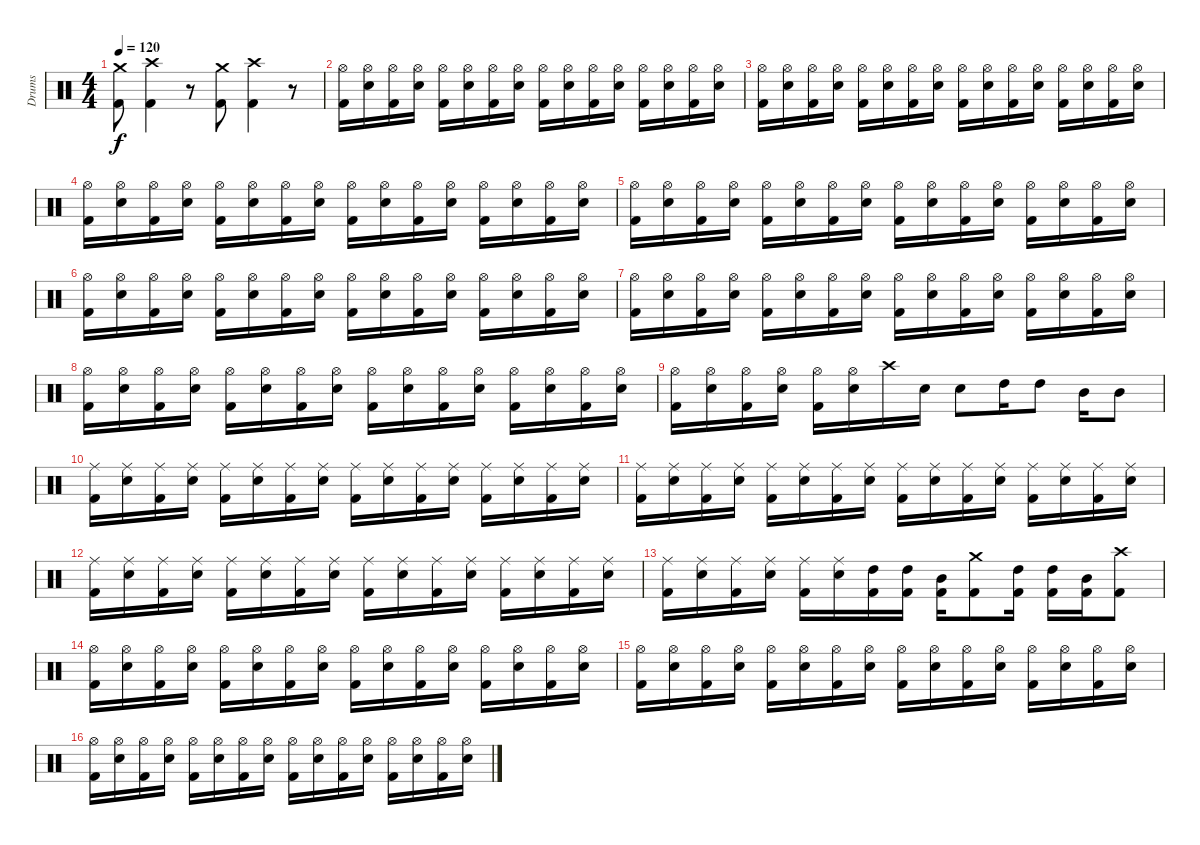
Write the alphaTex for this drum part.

\track ("Drums" "Drums") {instrument percussion}
\staff {score}
\articulation defaults
\ts (4 4)
\tempo 120
\clef neutral
\ks c
("Crash medium (hit)" "Kick (hit) 2").8{dy f} ("Crash high (hit)" "Kick (hit) 2").4 r.8 ("Crash medium (hit)" "Kick (hit) 2").8 ("Crash high (hit)" "Kick (hit) 2").4 r.8 |
("Hi-Hat (open)" "Kick (hit) 2").16 ("Hi-Hat (open)" "Electric Snare (hit)").16 ("Hi-Hat (open)" "Kick (hit) 2").16 ("Hi-Hat (open)" "Electric Snare (hit)").16 ("Hi-Hat (open)" "Kick (hit) 2").16 ("Hi-Hat (open)" "Electric Snare (hit)").16 ("Hi-Hat (open)" "Kick (hit) 2").16 ("Hi-Hat (open)" "Electric Snare (hit)").16 ("Hi-Hat (open)" "Kick (hit) 2").16 ("Hi-Hat (open)" "Electric Snare (hit)").16 ("Hi-Hat (open)" "Kick (hit) 2").16 ("Hi-Hat (open)" "Electric Snare (hit)").16 ("Hi-Hat (open)" "Kick (hit) 2").16 ("Hi-Hat (open)" "Electric Snare (hit)").16 ("Hi-Hat (open)" "Kick (hit) 2").16 ("Hi-Hat (open)" "Electric Snare (hit)").16 |
("Hi-Hat (open)" "Kick (hit) 2").16 ("Hi-Hat (open)" "Electric Snare (hit)").16 ("Hi-Hat (open)" "Kick (hit) 2").16 ("Hi-Hat (open)" "Electric Snare (hit)").16 ("Hi-Hat (open)" "Kick (hit) 2").16 ("Hi-Hat (open)" "Electric Snare (hit)").16 ("Hi-Hat (open)" "Kick (hit) 2").16 ("Hi-Hat (open)" "Electric Snare (hit)").16 ("Hi-Hat (open)" "Kick (hit) 2").16 ("Hi-Hat (open)" "Electric Snare (hit)").16 ("Hi-Hat (open)" "Kick (hit) 2").16 ("Hi-Hat (open)" "Electric Snare (hit)").16 ("Hi-Hat (open)" "Kick (hit) 2").16 ("Hi-Hat (open)" "Electric Snare (hit)").16 ("Hi-Hat (open)" "Kick (hit) 2").16 ("Hi-Hat (open)" "Electric Snare (hit)").16 |
("Hi-Hat (open)" "Kick (hit) 2").16 ("Hi-Hat (open)" "Electric Snare (hit)").16 ("Hi-Hat (open)" "Kick (hit) 2").16 ("Hi-Hat (open)" "Electric Snare (hit)").16 ("Hi-Hat (open)" "Kick (hit) 2").16 ("Hi-Hat (open)" "Electric Snare (hit)").16 ("Hi-Hat (open)" "Kick (hit) 2").16 ("Hi-Hat (open)" "Electric Snare (hit)").16 ("Hi-Hat (open)" "Kick (hit) 2").16 ("Hi-Hat (open)" "Electric Snare (hit)").16 ("Hi-Hat (open)" "Kick (hit) 2").16 ("Hi-Hat (open)" "Electric Snare (hit)").16 ("Hi-Hat (open)" "Kick (hit) 2").16 ("Hi-Hat (open)" "Electric Snare (hit)").16 ("Hi-Hat (open)" "Kick (hit) 2").16 ("Hi-Hat (open)" "Electric Snare (hit)").16 |
("Hi-Hat (open)" "Kick (hit) 2").16 ("Hi-Hat (open)" "Electric Snare (hit)").16 ("Hi-Hat (open)" "Kick (hit) 2").16 ("Hi-Hat (open)" "Electric Snare (hit)").16 ("Hi-Hat (open)" "Kick (hit) 2").16 ("Hi-Hat (open)" "Electric Snare (hit)").16 ("Hi-Hat (open)" "Kick (hit) 2").16 ("Hi-Hat (open)" "Electric Snare (hit)").16 ("Hi-Hat (open)" "Kick (hit) 2").16 ("Hi-Hat (open)" "Electric Snare (hit)").16 ("Hi-Hat (open)" "Kick (hit) 2").16 ("Hi-Hat (open)" "Electric Snare (hit)").16 ("Hi-Hat (open)" "Kick (hit) 2").16 ("Hi-Hat (open)" "Electric Snare (hit)").16 ("Hi-Hat (open)" "Kick (hit) 2").16 ("Hi-Hat (open)" "Electric Snare (hit)").16 |
("Hi-Hat (open)" "Kick (hit) 2").16 ("Hi-Hat (open)" "Electric Snare (hit)").16 ("Hi-Hat (open)" "Kick (hit) 2").16 ("Hi-Hat (open)" "Electric Snare (hit)").16 ("Hi-Hat (open)" "Kick (hit) 2").16 ("Hi-Hat (open)" "Electric Snare (hit)").16 ("Hi-Hat (open)" "Kick (hit) 2").16 ("Hi-Hat (open)" "Electric Snare (hit)").16 ("Hi-Hat (open)" "Kick (hit) 2").16 ("Hi-Hat (open)" "Electric Snare (hit)").16 ("Hi-Hat (open)" "Kick (hit) 2").16 ("Hi-Hat (open)" "Electric Snare (hit)").16 ("Hi-Hat (open)" "Kick (hit) 2").16 ("Hi-Hat (open)" "Electric Snare (hit)").16 ("Hi-Hat (open)" "Kick (hit) 2").16 ("Hi-Hat (open)" "Electric Snare (hit)").16 |
("Hi-Hat (open)" "Kick (hit) 2").16 ("Hi-Hat (open)" "Electric Snare (hit)").16 ("Hi-Hat (open)" "Kick (hit) 2").16 ("Hi-Hat (open)" "Electric Snare (hit)").16 ("Hi-Hat (open)" "Kick (hit) 2").16 ("Hi-Hat (open)" "Electric Snare (hit)").16 ("Hi-Hat (open)" "Kick (hit) 2").16 ("Hi-Hat (open)" "Electric Snare (hit)").16 ("Hi-Hat (open)" "Kick (hit) 2").16 ("Hi-Hat (open)" "Electric Snare (hit)").16 ("Hi-Hat (open)" "Kick (hit) 2").16 ("Hi-Hat (open)" "Electric Snare (hit)").16 ("Hi-Hat (open)" "Kick (hit) 2").16 ("Hi-Hat (open)" "Electric Snare (hit)").16 ("Hi-Hat (open)" "Kick (hit) 2").16 ("Hi-Hat (open)" "Electric Snare (hit)").16 |
("Hi-Hat (open)" "Kick (hit) 2").16 ("Hi-Hat (open)" "Electric Snare (hit)").16 ("Hi-Hat (open)" "Kick (hit) 2").16 ("Hi-Hat (open)" "Electric Snare (hit)").16 ("Hi-Hat (open)" "Kick (hit) 2").16 ("Hi-Hat (open)" "Electric Snare (hit)").16 ("Hi-Hat (open)" "Kick (hit) 2").16 ("Hi-Hat (open)" "Electric Snare (hit)").16 ("Hi-Hat (open)" "Kick (hit) 2").16 ("Hi-Hat (open)" "Electric Snare (hit)").16 ("Hi-Hat (open)" "Kick (hit) 2").16 ("Hi-Hat (open)" "Electric Snare (hit)").16 ("Hi-Hat (open)" "Kick (hit) 2").16 ("Hi-Hat (open)" "Electric Snare (hit)").16 ("Hi-Hat (open)" "Kick (hit) 2").16 ("Hi-Hat (open)" "Electric Snare (hit)").16 |
("Hi-Hat (open)" "Kick (hit) 2").16 ("Hi-Hat (open)" "Electric Snare (hit)").16 ("Hi-Hat (open)" "Kick (hit) 2").16 ("Hi-Hat (open)" "Electric Snare (hit)").16 ("Hi-Hat (open)" "Kick (hit) 2").16 ("Hi-Hat (open)" "Electric Snare (hit)").16 "Crash high (hit)".16 "Electric Snare (hit)".16 "Electric Snare (hit)".8 "High Tom (hit)".16 "High Tom (hit)".8 "Mid Tom (hit)".16 "Mid Tom (hit)".8 |
("Ride (middle)" "Kick (hit) 2").16 ("Ride (middle)" "Electric Snare (hit)").16 ("Ride (middle)" "Kick (hit) 2").16 ("Ride (middle)" "Electric Snare (hit)").16 ("Ride (middle)" "Kick (hit) 2").16 ("Ride (middle)" "Electric Snare (hit)").16 ("Ride (middle)" "Kick (hit) 2").16 ("Ride (middle)" "Electric Snare (hit)").16 ("Ride (middle)" "Kick (hit) 2").16 ("Ride (middle)" "Electric Snare (hit)").16 ("Ride (middle)" "Kick (hit) 2").16 ("Ride (middle)" "Electric Snare (hit)").16 ("Ride (middle)" "Kick (hit) 2").16 ("Ride (middle)" "Electric Snare (hit)").16 ("Ride (middle)" "Kick (hit) 2").16 ("Ride (middle)" "Electric Snare (hit)").16 |
("Ride (middle)" "Kick (hit) 2").16 ("Ride (middle)" "Electric Snare (hit)").16 ("Ride (middle)" "Kick (hit) 2").16 ("Ride (middle)" "Electric Snare (hit)").16 ("Ride (middle)" "Kick (hit) 2").16 ("Ride (middle)" "Electric Snare (hit)").16 ("Ride (middle)" "Kick (hit) 2").16 ("Ride (middle)" "Electric Snare (hit)").16 ("Ride (middle)" "Kick (hit) 2").16 ("Ride (middle)" "Electric Snare (hit)").16 ("Ride (middle)" "Kick (hit) 2").16 ("Ride (middle)" "Electric Snare (hit)").16 ("Ride (middle)" "Kick (hit) 2").16 ("Ride (middle)" "Electric Snare (hit)").16 ("Ride (middle)" "Kick (hit) 2").16 ("Ride (middle)" "Electric Snare (hit)").16 |
("Ride (middle)" "Kick (hit) 2").16 ("Ride (middle)" "Electric Snare (hit)").16 ("Ride (middle)" "Kick (hit) 2").16 ("Ride (middle)" "Electric Snare (hit)").16 ("Ride (middle)" "Kick (hit) 2").16 ("Ride (middle)" "Electric Snare (hit)").16 ("Ride (middle)" "Kick (hit) 2").16 ("Ride (middle)" "Electric Snare (hit)").16 ("Ride (middle)" "Kick (hit) 2").16 ("Ride (middle)" "Electric Snare (hit)").16 ("Ride (middle)" "Kick (hit) 2").16 ("Ride (middle)" "Electric Snare (hit)").16 ("Ride (middle)" "Kick (hit) 2").16 ("Ride (middle)" "Electric Snare (hit)").16 ("Ride (middle)" "Kick (hit) 2").16 ("Ride (middle)" "Electric Snare (hit)").16 |
("Ride (middle)" "Kick (hit) 2").16 ("Ride (middle)" "Electric Snare (hit)").16 ("Ride (middle)" "Kick (hit) 2").16 ("Ride (middle)" "Electric Snare (hit)").16 ("Ride (middle)" "Kick (hit) 2").16 ("Ride (middle)" "Electric Snare (hit)").16 ("High Tom (hit)" "Kick (hit) 2").16 ("High Tom (hit)" "Kick (hit) 2").16 ("Mid Tom (hit)" "Kick (hit) 2").16 ("Crash medium (hit)" "Kick (hit) 2").8 ("High Tom (hit)" "Kick (hit) 2").16 ("High Tom (hit)" "Kick (hit) 2").16 ("Mid Tom (hit)" "Kick (hit) 2").16 ("Crash high (hit)" "Kick (hit) 2").8 |
("Hi-Hat (open)" "Kick (hit) 2").16 ("Hi-Hat (open)" "Electric Snare (hit)").16 ("Hi-Hat (open)" "Kick (hit) 2").16 ("Hi-Hat (open)" "Electric Snare (hit)").16 ("Hi-Hat (open)" "Kick (hit) 2").16 ("Hi-Hat (open)" "Electric Snare (hit)").16 ("Hi-Hat (open)" "Kick (hit) 2").16 ("Hi-Hat (open)" "Electric Snare (hit)").16 ("Hi-Hat (open)" "Kick (hit) 2").16 ("Hi-Hat (open)" "Electric Snare (hit)").16 ("Hi-Hat (open)" "Kick (hit) 2").16 ("Hi-Hat (open)" "Electric Snare (hit)").16 ("Hi-Hat (open)" "Kick (hit) 2").16 ("Hi-Hat (open)" "Electric Snare (hit)").16 ("Hi-Hat (open)" "Kick (hit) 2").16 ("Hi-Hat (open)" "Electric Snare (hit)").16 |
("Hi-Hat (open)" "Kick (hit) 2").16 ("Hi-Hat (open)" "Electric Snare (hit)").16 ("Hi-Hat (open)" "Kick (hit) 2").16 ("Hi-Hat (open)" "Electric Snare (hit)").16 ("Hi-Hat (open)" "Kick (hit) 2").16 ("Hi-Hat (open)" "Electric Snare (hit)").16 ("Hi-Hat (open)" "Kick (hit) 2").16 ("Hi-Hat (open)" "Electric Snare (hit)").16 ("Hi-Hat (open)" "Kick (hit) 2").16 ("Hi-Hat (open)" "Electric Snare (hit)").16 ("Hi-Hat (open)" "Kick (hit) 2").16 ("Hi-Hat (open)" "Electric Snare (hit)").16 ("Hi-Hat (open)" "Kick (hit) 2").16 ("Hi-Hat (open)" "Electric Snare (hit)").16 ("Hi-Hat (open)" "Kick (hit) 2").16 ("Hi-Hat (open)" "Electric Snare (hit)").16 |
("Hi-Hat (open)" "Kick (hit) 2").16 ("Hi-Hat (open)" "Electric Snare (hit)").16 ("Hi-Hat (open)" "Kick (hit) 2").16 ("Hi-Hat (open)" "Electric Snare (hit)").16 ("Hi-Hat (open)" "Kick (hit) 2").16 ("Hi-Hat (open)" "Electric Snare (hit)").16 ("Hi-Hat (open)" "Kick (hit) 2").16 ("Hi-Hat (open)" "Electric Snare (hit)").16 ("Hi-Hat (open)" "Kick (hit) 2").16 ("Hi-Hat (open)" "Electric Snare (hit)").16 ("Hi-Hat (open)" "Kick (hit) 2").16 ("Hi-Hat (open)" "Electric Snare (hit)").16 ("Hi-Hat (open)" "Kick (hit) 2").16 ("Hi-Hat (open)" "Electric Snare (hit)").16 ("Hi-Hat (open)" "Kick (hit) 2").16 ("Hi-Hat (open)" "Electric Snare (hit)").16
